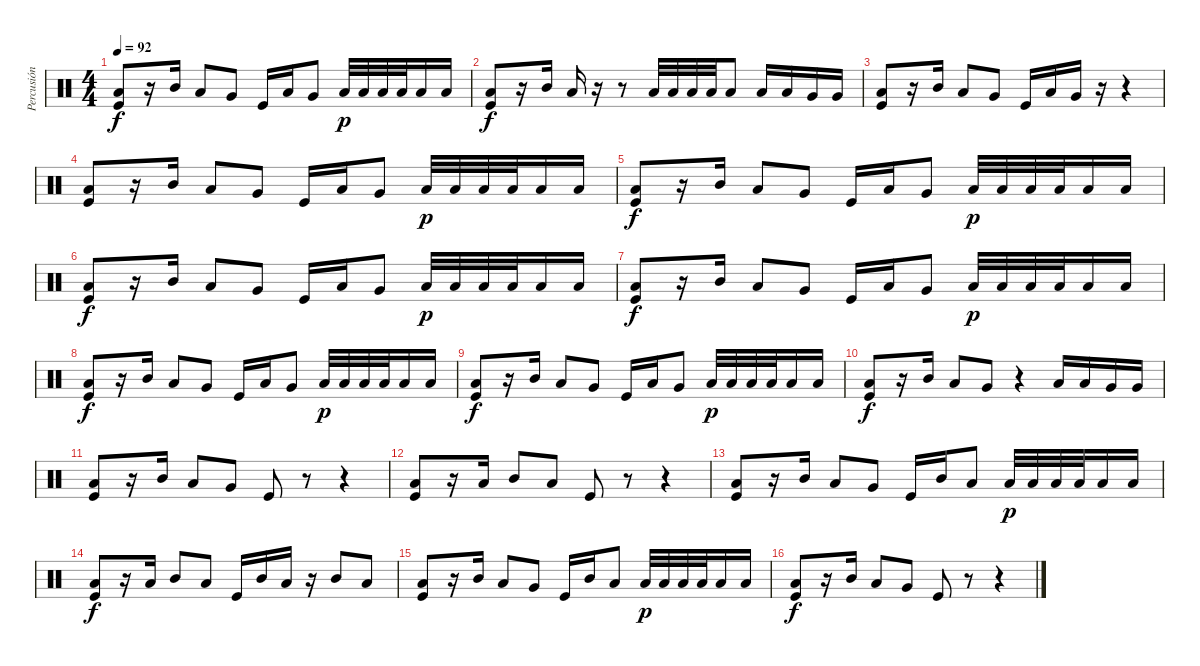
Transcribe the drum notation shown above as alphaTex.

\track ("Percusión" "Percusión") {instrument percussion}
\staff {score}
\articulation defaults
\ts (4 4)
\tempo 92
\clef neutral
\ks c
("Low Tom (hit)" "Kick (hit)").8{dy f} r.16 "Mid Tom (hit)".16 "Low Tom (hit)".8 "Very Low Tom (hit)".8 "Kick (hit)".16 "Low Tom (hit)".16 "Very Low Tom (hit)".8 "Low Floor Tom (hit)".32{dy p} "Low Floor Tom (hit)".32 "Low Floor Tom (hit)".32 "Low Floor Tom (hit)".32 "Low Floor Tom (hit)".16 "Low Floor Tom (hit)".16 |
("Low Tom (hit)" "Kick (hit)").8{dy f} r.16 "Mid Tom (hit)".16 "Low Tom (hit)".16 r.16 r.8 "Low Floor Tom (hit)".32 "Low Floor Tom (hit)".32 "Low Floor Tom (hit)".32 "Low Floor Tom (hit)".32 "Low Floor Tom (hit)".8 "Low Tom (hit)".16 "Low Tom (hit)".16 "Very Low Tom (hit)".16 "Very Low Tom (hit)".16 |
("Low Tom (hit)" "Kick (hit)").8 r.16 "Mid Tom (hit)".16 "Low Tom (hit)".8 "Very Low Tom (hit)".8 "Kick (hit)".16 "Low Tom (hit)".16 "Very Low Tom (hit)".16 r.16 r.4 |
("Low Tom (hit)" "Kick (hit)").8 r.16 "Mid Tom (hit)".16 "Low Tom (hit)".8 "Very Low Tom (hit)".8 "Kick (hit)".16 "Low Tom (hit)".16 "Very Low Tom (hit)".8 "Low Floor Tom (hit)".32{dy p} "Low Floor Tom (hit)".32 "Low Floor Tom (hit)".32 "Low Floor Tom (hit)".32 "Low Floor Tom (hit)".16 "Low Floor Tom (hit)".16 |
("Low Tom (hit)" "Kick (hit)").8{dy f} r.16 "Mid Tom (hit)".16 "Low Tom (hit)".8 "Very Low Tom (hit)".8 "Kick (hit)".16 "Low Tom (hit)".16 "Very Low Tom (hit)".8 "Low Floor Tom (hit)".32{dy p} "Low Floor Tom (hit)".32 "Low Floor Tom (hit)".32 "Low Floor Tom (hit)".32 "Low Floor Tom (hit)".16 "Low Floor Tom (hit)".16 |
("Low Tom (hit)" "Kick (hit)").8{dy f} r.16 "Mid Tom (hit)".16 "Low Tom (hit)".8 "Very Low Tom (hit)".8 "Kick (hit)".16 "Low Tom (hit)".16 "Very Low Tom (hit)".8 "Low Floor Tom (hit)".32{dy p} "Low Floor Tom (hit)".32 "Low Floor Tom (hit)".32 "Low Floor Tom (hit)".32 "Low Floor Tom (hit)".16 "Low Floor Tom (hit)".16 |
("Low Tom (hit)" "Kick (hit)").8{dy f} r.16 "Mid Tom (hit)".16 "Low Tom (hit)".8 "Very Low Tom (hit)".8 "Kick (hit)".16 "Low Tom (hit)".16 "Very Low Tom (hit)".8 "Low Floor Tom (hit)".32{dy p} "Low Floor Tom (hit)".32 "Low Floor Tom (hit)".32 "Low Floor Tom (hit)".32 "Low Floor Tom (hit)".16 "Low Floor Tom (hit)".16 |
("Low Tom (hit)" "Kick (hit)").8{dy f} r.16 "Mid Tom (hit)".16 "Low Tom (hit)".8 "Very Low Tom (hit)".8 "Kick (hit)".16 "Low Tom (hit)".16 "Very Low Tom (hit)".8 "Low Floor Tom (hit)".32{dy p} "Low Floor Tom (hit)".32 "Low Floor Tom (hit)".32 "Low Floor Tom (hit)".32 "Low Floor Tom (hit)".16 "Low Floor Tom (hit)".16 |
("Low Tom (hit)" "Kick (hit)").8{dy f} r.16 "Mid Tom (hit)".16 "Low Tom (hit)".8 "Very Low Tom (hit)".8 "Kick (hit)".16 "Low Tom (hit)".16 "Very Low Tom (hit)".8 "Low Floor Tom (hit)".32{dy p} "Low Floor Tom (hit)".32 "Low Floor Tom (hit)".32 "Low Floor Tom (hit)".32 "Low Floor Tom (hit)".16 "Low Floor Tom (hit)".16 |
("Low Tom (hit)" "Kick (hit)").8{dy f} r.16 "Mid Tom (hit)".16 "Low Tom (hit)".8 "Very Low Tom (hit)".8 r.4 "Low Tom (hit)".16 "Low Tom (hit)".16 "Very Low Tom (hit)".16 "Very Low Tom (hit)".16 |
("Low Tom (hit)" "Kick (hit)").8 r.16 "Mid Tom (hit)".16 "Low Tom (hit)".8 "Very Low Tom (hit)".8 "Kick (hit)".8 r.8 r.4 |
("Low Tom (hit)" "Kick (hit)").8 r.16 "Low Tom (hit)".16 "Mid Tom (hit)".8 "Low Tom (hit)".8 "Kick (hit)".8 r.8 r.4 |
("Low Tom (hit)" "Kick (hit)").8 r.16 "Mid Tom (hit)".16 "Low Tom (hit)".8 "Very Low Tom (hit)".8 "Kick (hit)".16 "Mid Tom (hit)".16 "Low Tom (hit)".8 "Low Floor Tom (hit)".32{dy p} "Low Floor Tom (hit)".32 "Low Floor Tom (hit)".32 "Low Floor Tom (hit)".32 "Low Floor Tom (hit)".16 "Low Floor Tom (hit)".16 |
("Low Tom (hit)" "Kick (hit)").8{dy f} r.16 "Low Tom (hit)".16 "Mid Tom (hit)".8 "Low Tom (hit)".8 "Kick (hit)".16 "Mid Tom (hit)".16 "Low Tom (hit)".16 r.16 "Mid Tom (hit)".8 "Low Tom (hit)".8 |
("Low Tom (hit)" "Kick (hit)").8 r.16 "Mid Tom (hit)".16 "Low Tom (hit)".8 "Very Low Tom (hit)".8 "Kick (hit)".16 "Mid Tom (hit)".16 "Low Tom (hit)".8 "Low Floor Tom (hit)".32{dy p} "Low Floor Tom (hit)".32 "Low Floor Tom (hit)".32 "Low Floor Tom (hit)".32 "Low Floor Tom (hit)".16 "Low Floor Tom (hit)".16 |
("Low Tom (hit)" "Kick (hit)").8{dy f} r.16 "Mid Tom (hit)".16 "Low Tom (hit)".8 "Very Low Tom (hit)".8 "Kick (hit)".8 r.8 r.4
